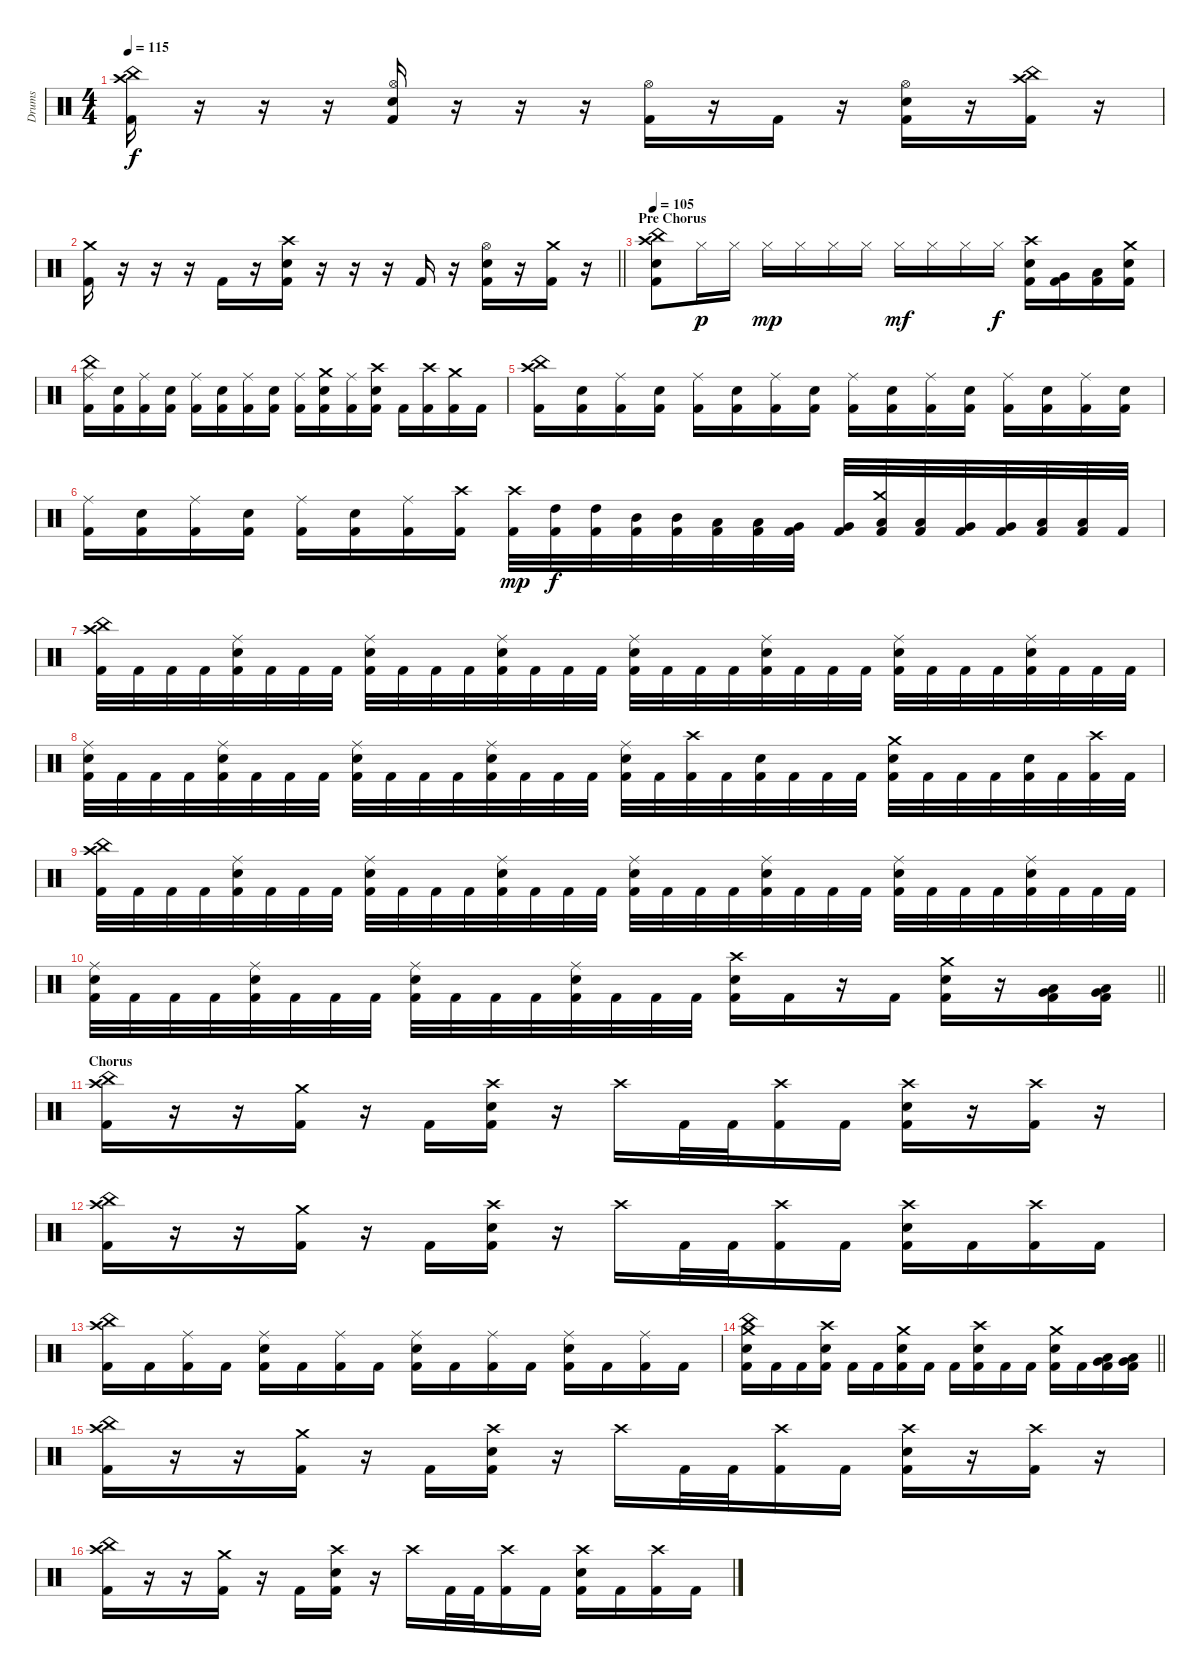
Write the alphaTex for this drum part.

\track ("Drums" "Drums") {instrument percussion}
\staff {score}
\articulation defaults
\ts (4 4)
\tempo 115
\clef neutral
\ks c
("China (hit)" "Crash high (hit)" "Kick (hit) 2").16{dy f} r.16 r.16 r.16 ("Hi-Hat (open)" "Electric Snare (hit)" "Kick (hit) 2").16 r.16 r.16 r.16 ("Hi-Hat (open)" "Kick (hit) 2").16 r.16 "Kick (hit) 2".16 r.16 ("Hi-Hat (open)" "Electric Snare (hit)" "Kick (hit) 2").16 r.16 ("China (hit)" "Crash high (hit)" "Kick (hit) 2").16 r.16 |
\barLineRight lightlight
("Crash medium (hit)" "Kick (hit) 2").16 r.16 r.16 r.16 "Kick (hit) 2".16 r.16 ("Crash high (hit)" "Electric Snare (hit)" "Kick (hit) 2").16 r.16 r.16 r.16 "Kick (hit) 2".16 r.16 ("Hi-Hat (open)" "Electric Snare (hit)" "Kick (hit) 2").16 r.16 ("Crash medium (hit)" "Kick (hit) 2").16 r.16 |
\section ("" "Pre Chorus")
\tempo 105
("China (hit)" "Crash high (hit)" "Electric Snare (hit)" "Kick (hit) 2").8 "Hi-Hat (closed)".16{dy p} "Hi-Hat (closed)".16 "Hi-Hat (closed)".16{dy mp} "Hi-Hat (closed)".16 "Hi-Hat (closed)".16 "Hi-Hat (closed)".16 "Hi-Hat (closed)".16{dy mf} "Hi-Hat (closed)".16 "Hi-Hat (closed)".16 "Hi-Hat (closed)".16{dy f} ("Crash high (hit)" "Electric Snare (hit)" "Kick (hit) 2").16 ("Very Low Tom (hit)" "Kick (hit) 2").16 ("Low Floor Tom (hit)" "Kick (hit) 2").16 ("Crash medium (hit)" "Electric Snare (hit)" "Kick (hit) 2").16 |
("China (hit)" "Ride (middle)" "Kick (hit) 2").16 ("Electric Snare (hit)" "Kick (hit) 2").16 ("Ride (middle)" "Kick (hit) 2").16 ("Electric Snare (hit)" "Kick (hit) 2").16 ("Ride (middle)" "Kick (hit) 2").16 ("Electric Snare (hit)" "Kick (hit) 2").16 ("Ride (middle)" "Kick (hit) 2").16 ("Electric Snare (hit)" "Kick (hit) 2").16 ("Ride (middle)" "Kick (hit) 2").16 ("Crash medium (hit)" "Electric Snare (hit)" "Kick (hit) 2").16 ("Ride (middle)" "Kick (hit) 2").16 ("Crash high (hit)" "Electric Snare (hit)" "Kick (hit) 2").16 "Kick (hit) 2".16 ("Crash high (hit)" "Kick (hit) 2").16 ("Crash medium (hit)" "Kick (hit) 2").16 "Kick (hit) 2".16 |
("China (hit)" "Crash high (hit)" "Kick (hit) 2").16 ("Electric Snare (hit)" "Kick (hit) 2").16 ("Ride (middle)" "Kick (hit) 2").16 ("Electric Snare (hit)" "Kick (hit) 2").16 ("Ride (middle)" "Kick (hit) 2").16 ("Electric Snare (hit)" "Kick (hit) 2").16 ("Ride (middle)" "Kick (hit) 2").16 ("Electric Snare (hit)" "Kick (hit) 2").16 ("Ride (middle)" "Kick (hit) 2").16 ("Electric Snare (hit)" "Kick (hit) 2").16 ("Ride (middle)" "Kick (hit) 2").16 ("Electric Snare (hit)" "Kick (hit) 2").16 ("Ride (middle)" "Kick (hit) 2").16 ("Electric Snare (hit)" "Kick (hit) 2").16 ("Ride (middle)" "Kick (hit) 2").16 ("Electric Snare (hit)" "Kick (hit) 2").16 |
("Ride (middle)" "Kick (hit) 2").16 ("Electric Snare (hit)" "Kick (hit) 2").16 ("Ride (middle)" "Kick (hit) 2").16 ("Electric Snare (hit)" "Kick (hit) 2").16 ("Ride (middle)" "Kick (hit) 2").16 ("Electric Snare (hit)" "Kick (hit) 2").16 ("Ride (middle)" "Kick (hit) 2").16 ("Crash high (hit)" "Kick (hit) 2").16 ("Crash high (hit)" "Kick (hit) 2").32{dy mp} ("High Tom (hit)" "Kick (hit) 2").32{dy f} ("High Tom (hit)" "Kick (hit) 2").32 ("Mid Tom (hit)" "Kick (hit) 2").32 ("Mid Tom (hit)" "Kick (hit) 2").32 ("Low Tom (hit)" "Kick (hit) 2").32 ("Low Tom (hit)" "Kick (hit) 2").32 ("Very Low Tom (hit)" "Kick (hit) 2").32 ("Very Low Tom (hit)" "Kick (hit) 2").32 ("Crash medium (hit)" "Low Tom (hit)" "Kick (hit) 2").32 ("Low Tom (hit)" "Kick (hit) 2").32 ("Very Low Tom (hit)" "Kick (hit) 2").32 ("Very Low Tom (hit)" "Kick (hit) 2").32 ("Low Floor Tom (hit)" "Kick (hit) 2").32 ("Low Floor Tom (hit)" "Kick (hit) 2").32 "Kick (hit) 2".32 |
("China (hit)" "Crash high (hit)" "Kick (hit) 2").32 "Kick (hit) 2".32 "Kick (hit) 2".32 "Kick (hit) 2".32 ("Ride (middle)" "Electric Snare (hit)" "Kick (hit) 2").32 "Kick (hit) 2".32 "Kick (hit) 2".32 "Kick (hit) 2".32 ("Ride (middle)" "Electric Snare (hit)" "Kick (hit) 2").32 "Kick (hit) 2".32 "Kick (hit) 2".32 "Kick (hit) 2".32 ("Ride (middle)" "Electric Snare (hit)" "Kick (hit) 2").32 "Kick (hit) 2".32 "Kick (hit) 2".32 "Kick (hit) 2".32 ("Ride (middle)" "Electric Snare (hit)" "Kick (hit) 2").32 "Kick (hit) 2".32 "Kick (hit) 2".32 "Kick (hit) 2".32 ("Ride (middle)" "Electric Snare (hit)" "Kick (hit) 2").32 "Kick (hit) 2".32 "Kick (hit) 2".32 "Kick (hit) 2".32 ("Ride (middle)" "Electric Snare (hit)" "Kick (hit) 2").32 "Kick (hit) 2".32 "Kick (hit) 2".32 "Kick (hit) 2".32 ("Ride (middle)" "Electric Snare (hit)" "Kick (hit) 2").32 "Kick (hit) 2".32 "Kick (hit) 2".32 "Kick (hit) 2".32 |
("Ride (middle)" "Electric Snare (hit)" "Kick (hit) 2").32 "Kick (hit) 2".32 "Kick (hit) 2".32 "Kick (hit) 2".32 ("Ride (middle)" "Electric Snare (hit)" "Kick (hit) 2").32 "Kick (hit) 2".32 "Kick (hit) 2".32 "Kick (hit) 2".32 ("Ride (middle)" "Electric Snare (hit)" "Kick (hit) 2").32 "Kick (hit) 2".32 "Kick (hit) 2".32 "Kick (hit) 2".32 ("Ride (middle)" "Electric Snare (hit)" "Kick (hit) 2").32 "Kick (hit) 2".32 "Kick (hit) 2".32 "Kick (hit) 2".32 ("Ride (middle)" "Electric Snare (hit)" "Kick (hit) 2").32 "Kick (hit) 2".32 ("Crash high (hit)" "Kick (hit) 2").32 "Kick (hit) 2".32 ("Electric Snare (hit)" "Kick (hit) 2").32 "Kick (hit) 2".32 "Kick (hit) 2".32 "Kick (hit) 2".32 ("Crash medium (hit)" "Electric Snare (hit)" "Kick (hit) 2").32 "Kick (hit) 2".32 "Kick (hit) 2".32 "Kick (hit) 2".32 ("Electric Snare (hit)" "Kick (hit) 2").32 "Kick (hit) 2".32 ("Crash high (hit)" "Kick (hit) 2").32 "Kick (hit) 2".32 |
("China (hit)" "Crash high (hit)" "Kick (hit) 2").32 "Kick (hit) 2".32 "Kick (hit) 2".32 "Kick (hit) 2".32 ("Ride (middle)" "Electric Snare (hit)" "Kick (hit) 2").32 "Kick (hit) 2".32 "Kick (hit) 2".32 "Kick (hit) 2".32 ("Ride (middle)" "Electric Snare (hit)" "Kick (hit) 2").32 "Kick (hit) 2".32 "Kick (hit) 2".32 "Kick (hit) 2".32 ("Ride (middle)" "Electric Snare (hit)" "Kick (hit) 2").32 "Kick (hit) 2".32 "Kick (hit) 2".32 "Kick (hit) 2".32 ("Ride (middle)" "Electric Snare (hit)" "Kick (hit) 2").32 "Kick (hit) 2".32 "Kick (hit) 2".32 "Kick (hit) 2".32 ("Ride (middle)" "Electric Snare (hit)" "Kick (hit) 2").32 "Kick (hit) 2".32 "Kick (hit) 2".32 "Kick (hit) 2".32 ("Ride (middle)" "Electric Snare (hit)" "Kick (hit) 2").32 "Kick (hit) 2".32 "Kick (hit) 2".32 "Kick (hit) 2".32 ("Ride (middle)" "Electric Snare (hit)" "Kick (hit) 2").32 "Kick (hit) 2".32 "Kick (hit) 2".32 "Kick (hit) 2".32 |
\barLineRight lightlight
("Ride (middle)" "Electric Snare (hit)" "Kick (hit) 2").32 "Kick (hit) 2".32 "Kick (hit) 2".32 "Kick (hit) 2".32 ("Ride (middle)" "Electric Snare (hit)" "Kick (hit) 2").32 "Kick (hit) 2".32 "Kick (hit) 2".32 "Kick (hit) 2".32 ("Ride (middle)" "Electric Snare (hit)" "Kick (hit) 2").32 "Kick (hit) 2".32 "Kick (hit) 2".32 "Kick (hit) 2".32 ("Ride (middle)" "Electric Snare (hit)" "Kick (hit) 2").32 "Kick (hit) 2".32 "Kick (hit) 2".32 "Kick (hit) 2".32 ("Crash high (hit)" "Electric Snare (hit)" "Kick (hit) 2").16 "Kick (hit) 2".16 r.16 "Kick (hit) 2".16 ("Crash medium (hit)" "Electric Snare (hit)" "Kick (hit) 2").16 r.16 ("Low Tom (hit)" "Very Low Tom (hit)" "Kick (hit) 2").16 ("Very Low Tom (hit)" "Low Floor Tom (hit)" "Kick (hit) 2").16 |
\section ("" "Chorus")
("China (hit)" "Crash high (hit)" "Kick (hit) 2").16 r.16 r.16 ("Crash medium (hit)" "Kick (hit) 2").16 r.16 "Kick (hit) 2".16 ("Crash high (hit)" "Electric Snare (hit)" "Kick (hit) 2").16 r.16 "Crash high (hit)".16 "Kick (hit) 2".32 "Kick (hit) 2".32 ("Crash high (hit)" "Kick (hit) 2").16 "Kick (hit) 2".16 ("Crash high (hit)" "Electric Snare (hit)" "Kick (hit) 2").16 r.16 ("Crash high (hit)" "Kick (hit) 2").16 r.16 |
("China (hit)" "Crash high (hit)" "Kick (hit) 2").16 r.16 r.16 ("Crash medium (hit)" "Kick (hit) 2").16 r.16 "Kick (hit) 2".16 ("Crash high (hit)" "Electric Snare (hit)" "Kick (hit) 2").16 r.16 "Crash high (hit)".16 "Kick (hit) 2".32 "Kick (hit) 2".32 ("Crash high (hit)" "Kick (hit) 2").16 "Kick (hit) 2".16 ("Crash high (hit)" "Electric Snare (hit)" "Kick (hit) 2").16 "Kick (hit) 2".16 ("Crash high (hit)" "Kick (hit) 2").16 "Kick (hit) 2".16 |
("China (hit)" "Crash high (hit)" "Kick (hit) 2").16 "Kick (hit) 2".16 ("Ride (middle)" "Kick (hit) 2").16 "Kick (hit) 2".16 ("Ride (middle)" "Electric Snare (hit)" "Kick (hit) 2").16 "Kick (hit) 2".16 ("Ride (middle)" "Kick (hit) 2").16 "Kick (hit) 2".16 ("Ride (middle)" "Electric Snare (hit)" "Kick (hit) 2").16 "Kick (hit) 2".16 ("Ride (middle)" "Kick (hit) 2").16 "Kick (hit) 2".16 ("Ride (middle)" "Electric Snare (hit)" "Kick (hit) 2").16 "Kick (hit) 2".16 ("Ride (middle)" "Kick (hit) 2").16 "Kick (hit) 2".16 |
\barLineRight lightlight
("China (hit)" "Crash medium (hit)" "Electric Snare (hit)" "Kick (hit) 2").16 "Kick (hit) 2".16 "Kick (hit) 2".16 ("Crash high (hit)" "Electric Snare (hit)" "Kick (hit) 2").16 "Kick (hit) 2".16 "Kick (hit) 2".16 ("Crash medium (hit)" "Electric Snare (hit)" "Kick (hit) 2").16 "Kick (hit) 2".16 "Kick (hit) 2".16 ("Crash high (hit)" "Electric Snare (hit)" "Kick (hit) 2").16 "Kick (hit) 2".16 "Kick (hit) 2".16 ("Crash medium (hit)" "Electric Snare (hit)" "Kick (hit) 2").16 "Kick (hit) 2".16 ("Very Low Tom (hit)" "Low Tom (hit)" "Kick (hit) 2").16 ("Low Floor Tom (hit)" "Very Low Tom (hit)" "Kick (hit) 2").16 |
("China (hit)" "Crash high (hit)" "Kick (hit) 2").16 r.16 r.16 ("Crash medium (hit)" "Kick (hit) 2").16 r.16 "Kick (hit) 2".16 ("Crash high (hit)" "Electric Snare (hit)" "Kick (hit) 2").16 r.16 "Crash high (hit)".16 "Kick (hit) 2".32 "Kick (hit) 2".32 ("Crash high (hit)" "Kick (hit) 2").16 "Kick (hit) 2".16 ("Crash high (hit)" "Electric Snare (hit)" "Kick (hit) 2").16 r.16 ("Crash high (hit)" "Kick (hit) 2").16 r.16 |
("China (hit)" "Crash high (hit)" "Kick (hit) 2").16 r.16 r.16 ("Crash medium (hit)" "Kick (hit) 2").16 r.16 "Kick (hit) 2".16 ("Crash high (hit)" "Electric Snare (hit)" "Kick (hit) 2").16 r.16 "Crash high (hit)".16 "Kick (hit) 2".32 "Kick (hit) 2".32 ("Crash high (hit)" "Kick (hit) 2").16 "Kick (hit) 2".16 ("Crash high (hit)" "Electric Snare (hit)" "Kick (hit) 2").16 "Kick (hit) 2".16 ("Crash high (hit)" "Kick (hit) 2").16 "Kick (hit) 2".16
